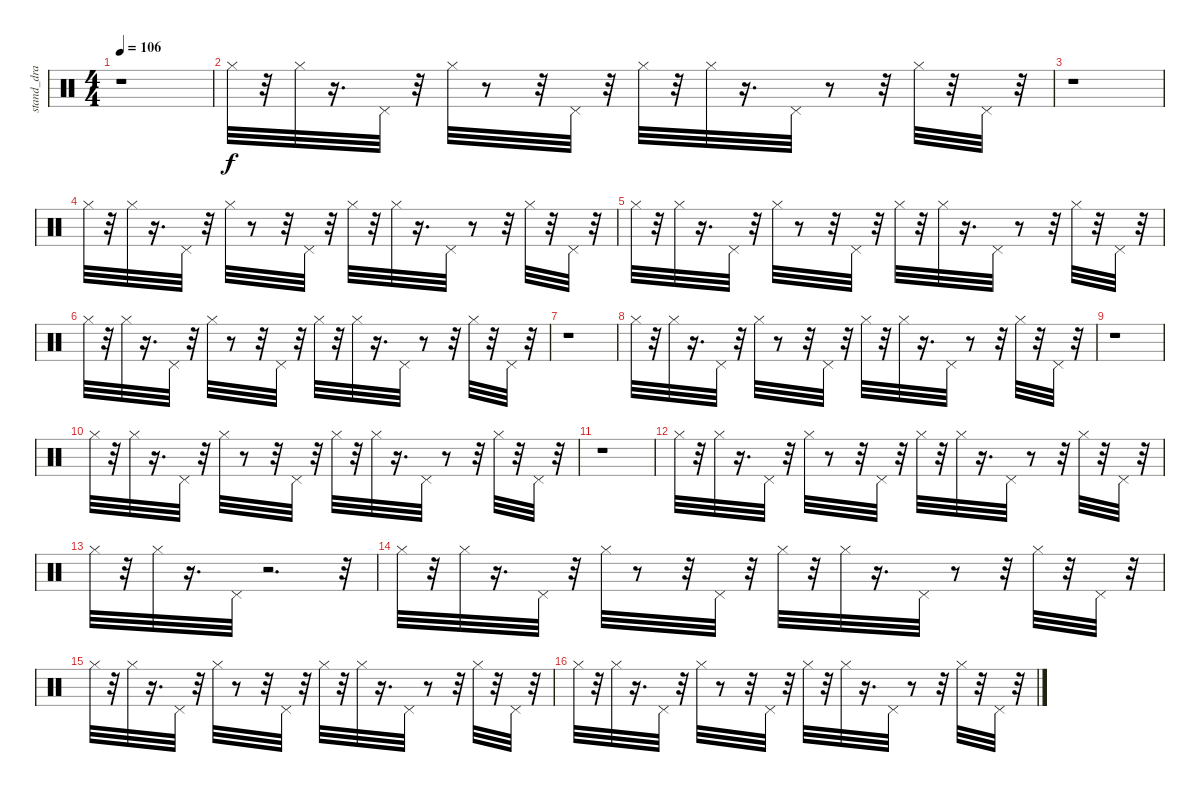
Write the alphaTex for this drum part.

\track ("stand_dra" "stand_dra") {instrument percussion}
\staff {score}
\articulation defaults
\ts (4 4)
\tempo 106
\clef neutral
\ks c
r.1{dy f} |
"Hi-Hat (closed)".32 r.32 "Hi-Hat (closed)".32 r.16{d} "Pedal Hi-Hat (hit)".32 r.32 "Hi-Hat (closed)".32 r.8 r.32 "Pedal Hi-Hat (hit)".32 r.32 "Hi-Hat (closed)".32 r.32 "Hi-Hat (closed)".32 r.16{d} "Pedal Hi-Hat (hit)".32 r.8 r.32 "Hi-Hat (closed)".32 r.32 "Pedal Hi-Hat (hit)".32 r.32 |
r.1 |
"Hi-Hat (closed)".32 r.32 "Hi-Hat (closed)".32 r.16{d} "Pedal Hi-Hat (hit)".32 r.32 "Hi-Hat (closed)".32 r.8 r.32 "Pedal Hi-Hat (hit)".32 r.32 "Hi-Hat (closed)".32 r.32 "Hi-Hat (closed)".32 r.16{d} "Pedal Hi-Hat (hit)".32 r.8 r.32 "Hi-Hat (closed)".32 r.32 "Pedal Hi-Hat (hit)".32 r.32 |
"Hi-Hat (closed)".32 r.32 "Hi-Hat (closed)".32 r.16{d} "Pedal Hi-Hat (hit)".32 r.32 "Hi-Hat (closed)".32 r.8 r.32 "Pedal Hi-Hat (hit)".32 r.32 "Hi-Hat (closed)".32 r.32 "Hi-Hat (closed)".32 r.16{d} "Pedal Hi-Hat (hit)".32 r.8 r.32 "Hi-Hat (closed)".32 r.32 "Pedal Hi-Hat (hit)".32 r.32 |
"Hi-Hat (closed)".32 r.32 "Hi-Hat (closed)".32 r.16{d} "Pedal Hi-Hat (hit)".32 r.32 "Hi-Hat (closed)".32 r.8 r.32 "Pedal Hi-Hat (hit)".32 r.32 "Hi-Hat (closed)".32 r.32 "Hi-Hat (closed)".32 r.16{d} "Pedal Hi-Hat (hit)".32 r.8 r.32 "Hi-Hat (closed)".32 r.32 "Pedal Hi-Hat (hit)".32 r.32 |
r.1 |
"Hi-Hat (closed)".32 r.32 "Hi-Hat (closed)".32 r.16{d} "Pedal Hi-Hat (hit)".32 r.32 "Hi-Hat (closed)".32 r.8 r.32 "Pedal Hi-Hat (hit)".32 r.32 "Hi-Hat (closed)".32 r.32 "Hi-Hat (closed)".32 r.16{d} "Pedal Hi-Hat (hit)".32 r.8 r.32 "Hi-Hat (closed)".32 r.32 "Pedal Hi-Hat (hit)".32 r.32 |
r.1 |
"Hi-Hat (closed)".32 r.32 "Hi-Hat (closed)".32 r.16{d} "Pedal Hi-Hat (hit)".32 r.32 "Hi-Hat (closed)".32 r.8 r.32 "Pedal Hi-Hat (hit)".32 r.32 "Hi-Hat (closed)".32 r.32 "Hi-Hat (closed)".32 r.16{d} "Pedal Hi-Hat (hit)".32 r.8 r.32 "Hi-Hat (closed)".32 r.32 "Pedal Hi-Hat (hit)".32 r.32 |
r.1 |
"Hi-Hat (closed)".32 r.32 "Hi-Hat (closed)".32 r.16{d} "Pedal Hi-Hat (hit)".32 r.32 "Hi-Hat (closed)".32 r.8 r.32 "Pedal Hi-Hat (hit)".32 r.32 "Hi-Hat (closed)".32 r.32 "Hi-Hat (closed)".32 r.16{d} "Pedal Hi-Hat (hit)".32 r.8 r.32 "Hi-Hat (closed)".32 r.32 "Pedal Hi-Hat (hit)".32 r.32 |
"Hi-Hat (closed)".32 r.32 "Hi-Hat (closed)".32 r.16{d} "Pedal Hi-Hat (hit)".32 r.2{d} r.32 |
"Hi-Hat (closed)".32 r.32 "Hi-Hat (closed)".32 r.16{d} "Pedal Hi-Hat (hit)".32 r.32 "Hi-Hat (closed)".32 r.8 r.32 "Pedal Hi-Hat (hit)".32 r.32 "Hi-Hat (closed)".32 r.32 "Hi-Hat (closed)".32 r.16{d} "Pedal Hi-Hat (hit)".32 r.8 r.32 "Hi-Hat (closed)".32 r.32 "Pedal Hi-Hat (hit)".32 r.32 |
"Hi-Hat (closed)".32 r.32 "Hi-Hat (closed)".32 r.16{d} "Pedal Hi-Hat (hit)".32 r.32 "Hi-Hat (closed)".32 r.8 r.32 "Pedal Hi-Hat (hit)".32 r.32 "Hi-Hat (closed)".32 r.32 "Hi-Hat (closed)".32 r.16{d} "Pedal Hi-Hat (hit)".32 r.8 r.32 "Hi-Hat (closed)".32 r.32 "Pedal Hi-Hat (hit)".32 r.32 |
"Hi-Hat (closed)".32 r.32 "Hi-Hat (closed)".32 r.16{d} "Pedal Hi-Hat (hit)".32 r.32 "Hi-Hat (closed)".32 r.8 r.32 "Pedal Hi-Hat (hit)".32 r.32 "Hi-Hat (closed)".32 r.32 "Hi-Hat (closed)".32 r.16{d} "Pedal Hi-Hat (hit)".32 r.8 r.32 "Hi-Hat (closed)".32 r.32 "Pedal Hi-Hat (hit)".32 r.32
